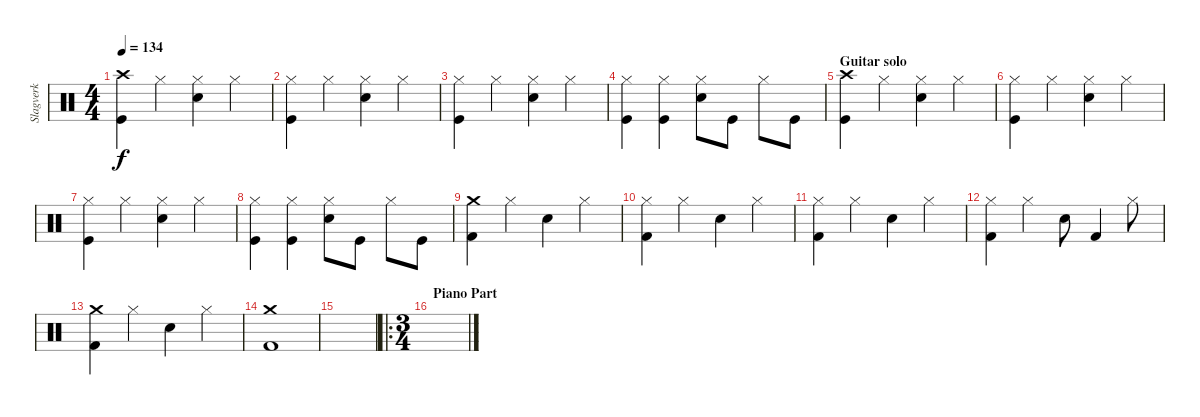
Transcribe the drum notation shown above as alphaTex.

\track ("Slagverk" "Slagverk") {instrument percussion}
\staff {score}
\articulation defaults
\ts (4 4)
\tempo 134
\clef neutral
\ks c
("Crash high (hit)" "Kick (hit)").4{dy f} "Hi-Hat (closed)".4 ("Hi-Hat (closed)" "Snare (hit) 2").4 "Hi-Hat (closed)".4 |
("Hi-Hat (closed)" "Kick (hit)").4 "Hi-Hat (closed)".4 ("Hi-Hat (closed)" "Snare (hit) 2").4 "Hi-Hat (closed)".4 |
("Hi-Hat (closed)" "Kick (hit)").4 "Hi-Hat (closed)".4 ("Hi-Hat (closed)" "Snare (hit) 2").4 "Hi-Hat (closed)".4 |
("Hi-Hat (closed)" "Kick (hit)").4 ("Hi-Hat (closed)" "Kick (hit)").4 ("Hi-Hat (closed)" "Snare (hit) 2").8 "Kick (hit)".8 "Hi-Hat (closed)".8 "Kick (hit)".8 |
\section ("" "Guitar solo")
("Crash high (hit)" "Kick (hit)").4 "Hi-Hat (closed)".4 ("Hi-Hat (closed)" "Snare (hit) 2").4 "Hi-Hat (closed)".4 |
("Hi-Hat (closed)" "Kick (hit)").4 "Hi-Hat (closed)".4 ("Hi-Hat (closed)" "Snare (hit) 2").4 "Hi-Hat (closed)".4 |
("Hi-Hat (closed)" "Kick (hit)").4 "Hi-Hat (closed)".4 ("Hi-Hat (closed)" "Snare (hit) 2").4 "Hi-Hat (closed)".4 |
("Hi-Hat (closed)" "Kick (hit)").4 ("Hi-Hat (closed)" "Kick (hit)").4 ("Hi-Hat (closed)" "Snare (hit) 2").8 "Kick (hit)".8 "Hi-Hat (closed)".8 "Kick (hit)".8 |
("Crash medium (hit)" "Kick (hit) 2").4 "Hi-Hat (closed)".4 "Snare (hit) 2".4 "Hi-Hat (closed)".4 |
("Hi-Hat (closed)" "Kick (hit) 2").4 "Hi-Hat (closed)".4 "Snare (hit) 2".4 "Hi-Hat (closed)".4 |
("Hi-Hat (closed)" "Kick (hit) 2").4 "Hi-Hat (closed)".4 "Snare (hit) 2".4 "Hi-Hat (closed)".4 |
("Hi-Hat (closed)" "Kick (hit) 2").4 "Hi-Hat (closed)".4 "Snare (hit) 2".8 "Kick (hit) 2".4 "Hi-Hat (closed)".8 |
("Crash medium (hit)" "Kick (hit) 2").4 "Hi-Hat (closed)".4 "Snare (hit) 2".4 "Hi-Hat (closed)".4 |
("Crash medium (hit)" "Kick (hit) 2").1 |
|
\ro
\ts (3 4)
\section ("" "Piano Part")
